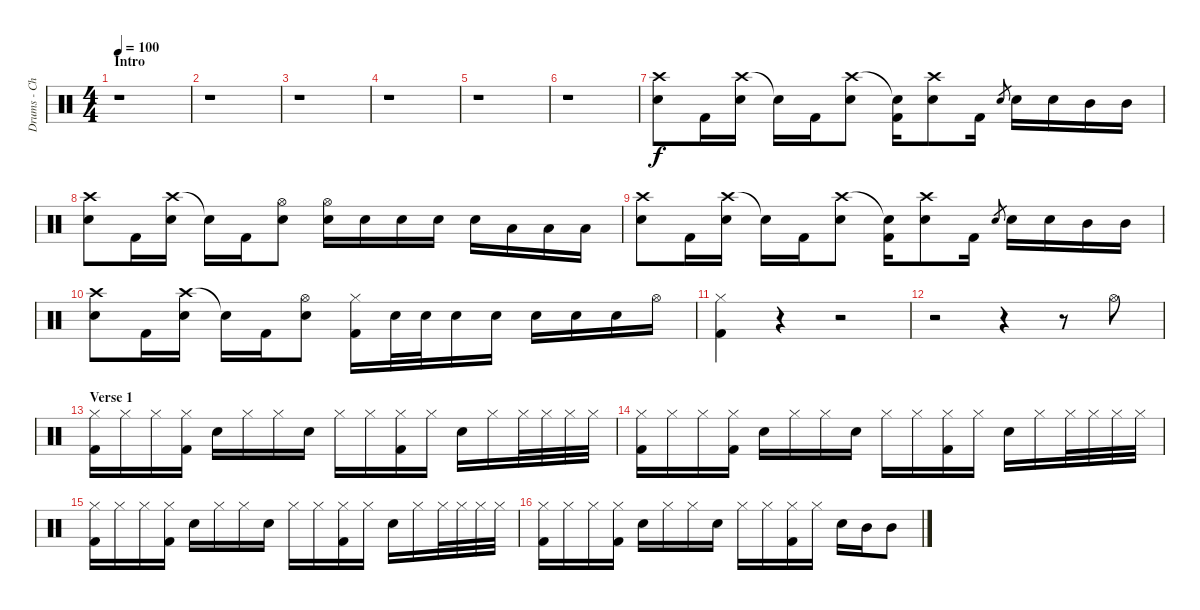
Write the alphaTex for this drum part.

\track ("Drums - Chad" "Drums - Ch") {instrument percussion}
\staff {score}
\articulation defaults
\ts (4 4)
\section ("" "Intro")
\tempo 100
\clef neutral
\ks c
r.1{dy f} |
r.1 |
r.1 |
r.1 |
r.1 |
r.1 |
("Crash high (hit)" "Electric Snare (hit)").8 "Kick (hit) 2".16 ("Crash high (hit)" "Electric Snare (hit)").16 "Snare (hit)"{t}.16 "Kick (hit) 2".16 ("Crash high (hit)" "Electric Snare (hit)").8 ("Snare (hit)"{t} "Kick (hit) 2").16 ("Crash high (hit)" "Electric Snare (hit)").8 "Kick (hit) 2".16 "Electric Snare (hit)".8{gr} "Electric Snare (hit)".16 "Electric Snare (hit)".16 "Mid Tom (hit)".16 "Mid Tom (hit)".16 |
("Crash high (hit)" "Electric Snare (hit)").8 "Kick (hit) 2".16 ("Crash high (hit)" "Electric Snare (hit)").16 "Snare (hit)"{t}.16 "Kick (hit) 2".16 ("Hi-Hat (open)" "Electric Snare (hit)").8 ("Hi-Hat (open)" "Electric Snare (hit)").16 "Electric Snare (hit)".16 "Electric Snare (hit)".16 "Electric Snare (hit)".16 "Electric Snare (hit)".16 "Low Tom (hit)".16 "Low Tom (hit)".16 "Low Tom (hit)".16 |
("Crash high (hit)" "Electric Snare (hit)").8 "Kick (hit) 2".16 ("Crash high (hit)" "Electric Snare (hit)").16 "Snare (hit)"{t}.16 "Kick (hit) 2".16 ("Crash high (hit)" "Electric Snare (hit)").8 ("Snare (hit)"{t} "Kick (hit) 2").16 ("Crash high (hit)" "Electric Snare (hit)").8 "Kick (hit) 2".16 "Electric Snare (hit)".8{gr} "Electric Snare (hit)".16 "Electric Snare (hit)".16 "Mid Tom (hit)".16 "Mid Tom (hit)".16 |
("Crash high (hit)" "Electric Snare (hit)").8 "Kick (hit) 2".16 ("Crash high (hit)" "Electric Snare (hit)").16 "Snare (hit)"{t}.16 "Kick (hit) 2".16 ("Hi-Hat (open)" "Electric Snare (hit)").8 ("Hi-Hat (closed)" "Kick (hit) 2").16 "Electric Snare (hit)".32 "Electric Snare (hit)".32 "Electric Snare (hit)".16 "Electric Snare (hit)".16 "Electric Snare (hit)".16 "Electric Snare (hit)".16 "Electric Snare (hit)".16 "Hi-Hat (open)".16 |
("Hi-Hat (closed)" "Kick (hit) 2").4 r.4 r.2 |
r.2 r.4 r.8 "Hi-Hat (open)".8 |
\section ("" "Verse 1")
("Hi-Hat (closed)" "Kick (hit) 2").16 "Hi-Hat (closed)".16 "Hi-Hat (closed)".16 ("Hi-Hat (closed)" "Kick (hit) 2").16 "Electric Snare (hit)".16 "Hi-Hat (closed)".16 "Hi-Hat (closed)".16 "Electric Snare (hit)".16 "Hi-Hat (closed)".16 "Hi-Hat (closed)".16 ("Hi-Hat (closed)" "Kick (hit) 2").16 "Hi-Hat (closed)".16 "Electric Snare (hit)".16 "Hi-Hat (closed)".16 "Hi-Hat (closed)".32 "Hi-Hat (closed)".32 "Hi-Hat (closed)".32 "Hi-Hat (closed)".32 |
("Hi-Hat (closed)" "Kick (hit) 2").16 "Hi-Hat (closed)".16 "Hi-Hat (closed)".16 ("Hi-Hat (closed)" "Kick (hit) 2").16 "Electric Snare (hit)".16 "Hi-Hat (closed)".16 "Hi-Hat (closed)".16 "Electric Snare (hit)".16 "Hi-Hat (closed)".16 "Hi-Hat (closed)".16 ("Hi-Hat (closed)" "Kick (hit) 2").16 "Hi-Hat (closed)".16 "Electric Snare (hit)".16 "Hi-Hat (closed)".16 "Hi-Hat (closed)".32 "Hi-Hat (closed)".32 "Hi-Hat (closed)".32 "Hi-Hat (closed)".32 |
("Hi-Hat (closed)" "Kick (hit) 2").16 "Hi-Hat (closed)".16 "Hi-Hat (closed)".16 ("Hi-Hat (closed)" "Kick (hit) 2").16 "Electric Snare (hit)".16 "Hi-Hat (closed)".16 "Hi-Hat (closed)".16 "Electric Snare (hit)".16 "Hi-Hat (closed)".16 "Hi-Hat (closed)".16 ("Hi-Hat (closed)" "Kick (hit) 2").16 "Hi-Hat (closed)".16 "Electric Snare (hit)".16 "Hi-Hat (closed)".16 "Hi-Hat (closed)".32 "Hi-Hat (closed)".32 "Hi-Hat (closed)".32 "Hi-Hat (closed)".32 |
("Hi-Hat (closed)" "Kick (hit) 2").16 "Hi-Hat (closed)".16 "Hi-Hat (closed)".16 ("Hi-Hat (closed)" "Kick (hit) 2").16 "Electric Snare (hit)".16 "Hi-Hat (closed)".16 "Hi-Hat (closed)".16 "Electric Snare (hit)".16 "Hi-Hat (closed)".16 "Hi-Hat (closed)".16 ("Hi-Hat (closed)" "Kick (hit) 2").16 "Hi-Hat (closed)".16 "Electric Snare (hit)".16 "Mid Tom (hit)".16 "Mid Tom (hit)".8
